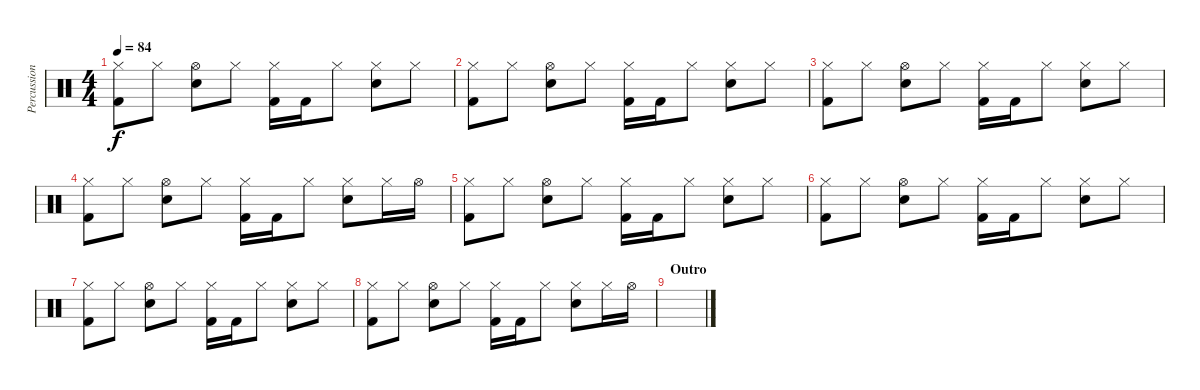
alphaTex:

\track ("Percussion" "Percussion") {instrument percussion}
\staff {score}
\articulation defaults
\ts (4 4)
\tempo 84
\clef neutral
\ks c
("Hi-Hat (closed)" "Kick (hit) 2").8{dy f} "Hi-Hat (closed)".8 ("Hi-Hat (open)" "Electric Snare (hit)").8 "Hi-Hat (closed)".8 ("Hi-Hat (closed)" "Kick (hit) 2").16 "Kick (hit) 2".16 "Hi-Hat (closed)".8 ("Hi-Hat (closed)" "Electric Snare (hit)").8 "Hi-Hat (closed)".8 |
("Hi-Hat (closed)" "Kick (hit) 2").8 "Hi-Hat (closed)".8 ("Hi-Hat (open)" "Electric Snare (hit)").8 "Hi-Hat (closed)".8 ("Hi-Hat (closed)" "Kick (hit) 2").16 "Kick (hit) 2".16 "Hi-Hat (closed)".8 ("Hi-Hat (closed)" "Electric Snare (hit)").8 "Hi-Hat (closed)".8 |
("Hi-Hat (closed)" "Kick (hit) 2").8 "Hi-Hat (closed)".8 ("Hi-Hat (open)" "Electric Snare (hit)").8 "Hi-Hat (closed)".8 ("Hi-Hat (closed)" "Kick (hit) 2").16 "Kick (hit) 2".16 "Hi-Hat (closed)".8 ("Hi-Hat (closed)" "Electric Snare (hit)").8 "Hi-Hat (closed)".8 |
("Hi-Hat (closed)" "Kick (hit) 2").8 "Hi-Hat (closed)".8 ("Hi-Hat (open)" "Electric Snare (hit)").8 "Hi-Hat (closed)".8 ("Hi-Hat (closed)" "Kick (hit) 2").16 "Kick (hit) 2".16 "Hi-Hat (closed)".8 ("Hi-Hat (closed)" "Electric Snare (hit)").8 "Hi-Hat (closed)".16 "Hi-Hat (open)".16 |
("Hi-Hat (closed)" "Kick (hit) 2").8 "Hi-Hat (closed)".8 ("Hi-Hat (open)" "Electric Snare (hit)").8 "Hi-Hat (closed)".8 ("Hi-Hat (closed)" "Kick (hit) 2").16 "Kick (hit) 2".16 "Hi-Hat (closed)".8 ("Hi-Hat (closed)" "Electric Snare (hit)").8 "Hi-Hat (closed)".8 |
("Hi-Hat (closed)" "Kick (hit) 2").8 "Hi-Hat (closed)".8 ("Hi-Hat (open)" "Electric Snare (hit)").8 "Hi-Hat (closed)".8 ("Hi-Hat (closed)" "Kick (hit) 2").16 "Kick (hit) 2".16 "Hi-Hat (closed)".8 ("Hi-Hat (closed)" "Electric Snare (hit)").8 "Hi-Hat (closed)".8 |
("Hi-Hat (closed)" "Kick (hit) 2").8 "Hi-Hat (closed)".8 ("Hi-Hat (open)" "Electric Snare (hit)").8 "Hi-Hat (closed)".8 ("Hi-Hat (closed)" "Kick (hit) 2").16 "Kick (hit) 2".16 "Hi-Hat (closed)".8 ("Hi-Hat (closed)" "Electric Snare (hit)").8 "Hi-Hat (closed)".8 |
("Hi-Hat (closed)" "Kick (hit) 2").8 "Hi-Hat (closed)".8 ("Hi-Hat (open)" "Electric Snare (hit)").8 "Hi-Hat (closed)".8 ("Hi-Hat (closed)" "Kick (hit) 2").16 "Kick (hit) 2".16 "Hi-Hat (closed)".8 ("Hi-Hat (closed)" "Electric Snare (hit)").8 "Hi-Hat (closed)".16 "Hi-Hat (open)".16 |
\section ("" "Outro")
